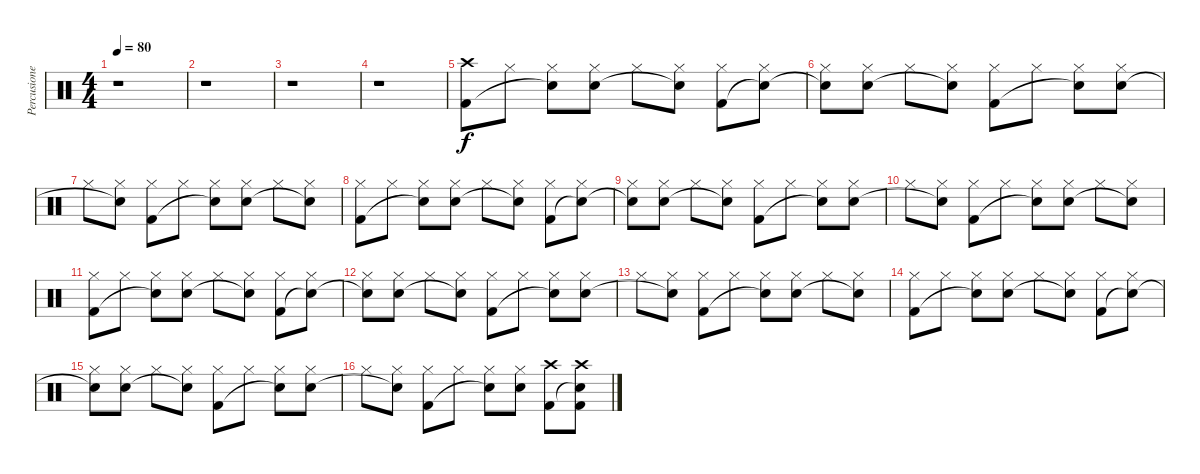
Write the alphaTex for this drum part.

\track ("Percusiones" "Percusione") {instrument percussion}
\staff {score}
\articulation defaults
\ts (4 4)
\tempo 80
\clef neutral
\ks c
r.1{dy f} |
r.1 |
r.1 |
r.1 |
("Crash high (hit)" "Kick (hit) 2").8 "Hi-Hat (closed)".8 ("Hi-Hat (closed)" "Snare (hit)"{t}).8 ("Hi-Hat (closed)" "Electric Snare (hit)").8 "Hi-Hat (closed)".8 ("Hi-Hat (closed)" "Snare (hit)"{t}).8 ("Hi-Hat (closed)" "Kick (hit) 2").8 ("Hi-Hat (closed)" "Snare (hit)"{t}).8 |
("Hi-Hat (closed)" "Snare (hit)"{t}).8 ("Hi-Hat (closed)" "Electric Snare (hit)").8 "Hi-Hat (closed)".8 ("Hi-Hat (closed)" "Snare (hit)"{t}).8 ("Hi-Hat (closed)" "Kick (hit) 2").8 "Hi-Hat (closed)".8 ("Hi-Hat (closed)" "Snare (hit)"{t}).8 ("Hi-Hat (closed)" "Electric Snare (hit)").8 |
"Hi-Hat (closed)".8 ("Hi-Hat (closed)" "Snare (hit)"{t}).8 ("Hi-Hat (closed)" "Kick (hit) 2").8 "Hi-Hat (closed)".8 ("Hi-Hat (closed)" "Snare (hit)"{t}).8 ("Hi-Hat (closed)" "Electric Snare (hit)").8 "Hi-Hat (closed)".8 ("Hi-Hat (closed)" "Snare (hit)"{t}).8 |
("Hi-Hat (closed)" "Kick (hit) 2").8 "Hi-Hat (closed)".8 ("Hi-Hat (closed)" "Snare (hit)"{t}).8 ("Hi-Hat (closed)" "Electric Snare (hit)").8 "Hi-Hat (closed)".8 ("Hi-Hat (closed)" "Snare (hit)"{t}).8 ("Hi-Hat (closed)" "Kick (hit) 2").8 ("Hi-Hat (closed)" "Snare (hit)"{t}).8 |
("Hi-Hat (closed)" "Snare (hit)"{t}).8 ("Hi-Hat (closed)" "Electric Snare (hit)").8 "Hi-Hat (closed)".8 ("Hi-Hat (closed)" "Snare (hit)"{t}).8 ("Hi-Hat (closed)" "Kick (hit) 2").8 "Hi-Hat (closed)".8 ("Hi-Hat (closed)" "Snare (hit)"{t}).8 ("Hi-Hat (closed)" "Electric Snare (hit)").8 |
"Hi-Hat (closed)".8 ("Hi-Hat (closed)" "Snare (hit)"{t}).8 ("Hi-Hat (closed)" "Kick (hit) 2").8 "Hi-Hat (closed)".8 ("Hi-Hat (closed)" "Snare (hit)"{t}).8 ("Hi-Hat (closed)" "Electric Snare (hit)").8 "Hi-Hat (closed)".8 ("Hi-Hat (closed)" "Snare (hit)"{t}).8 |
("Hi-Hat (closed)" "Kick (hit) 2").8 "Hi-Hat (closed)".8 ("Hi-Hat (closed)" "Snare (hit)"{t}).8 ("Hi-Hat (closed)" "Electric Snare (hit)").8 "Hi-Hat (closed)".8 ("Hi-Hat (closed)" "Snare (hit)"{t}).8 ("Hi-Hat (closed)" "Kick (hit) 2").8 ("Hi-Hat (closed)" "Snare (hit)"{t}).8 |
("Hi-Hat (closed)" "Snare (hit)"{t}).8 ("Hi-Hat (closed)" "Electric Snare (hit)").8 "Hi-Hat (closed)".8 ("Hi-Hat (closed)" "Snare (hit)"{t}).8 ("Hi-Hat (closed)" "Kick (hit) 2").8 "Hi-Hat (closed)".8 ("Hi-Hat (closed)" "Snare (hit)"{t}).8 ("Hi-Hat (closed)" "Electric Snare (hit)").8 |
"Hi-Hat (closed)".8 ("Hi-Hat (closed)" "Snare (hit)"{t}).8 ("Hi-Hat (closed)" "Kick (hit) 2").8 "Hi-Hat (closed)".8 ("Hi-Hat (closed)" "Snare (hit)"{t}).8 ("Hi-Hat (closed)" "Electric Snare (hit)").8 "Hi-Hat (closed)".8 ("Hi-Hat (closed)" "Snare (hit)"{t}).8 |
("Hi-Hat (closed)" "Kick (hit) 2").8 "Hi-Hat (closed)".8 ("Hi-Hat (closed)" "Snare (hit)"{t}).8 ("Hi-Hat (closed)" "Electric Snare (hit)").8 "Hi-Hat (closed)".8 ("Hi-Hat (closed)" "Snare (hit)"{t}).8 ("Hi-Hat (closed)" "Kick (hit) 2").8 ("Hi-Hat (closed)" "Snare (hit)"{t}).8 |
("Hi-Hat (closed)" "Snare (hit)"{t}).8 ("Hi-Hat (closed)" "Electric Snare (hit)").8 "Hi-Hat (closed)".8 ("Hi-Hat (closed)" "Snare (hit)"{t}).8 ("Hi-Hat (closed)" "Kick (hit) 2").8 "Hi-Hat (closed)".8 ("Hi-Hat (closed)" "Snare (hit)"{t}).8 ("Hi-Hat (closed)" "Electric Snare (hit)").8 |
"Hi-Hat (closed)".8 ("Hi-Hat (closed)" "Snare (hit)"{t}).8 ("Hi-Hat (closed)" "Kick (hit) 2").8 "Hi-Hat (closed)".8 ("Hi-Hat (closed)" "Snare (hit)"{t}).8 ("Hi-Hat (closed)" "Electric Snare (hit)").8 ("Crash high (hit)" "Kick (hit) 2").8 ("Crash high (hit)" "Snare (hit)"{t} "Kick (hit) 2").8
